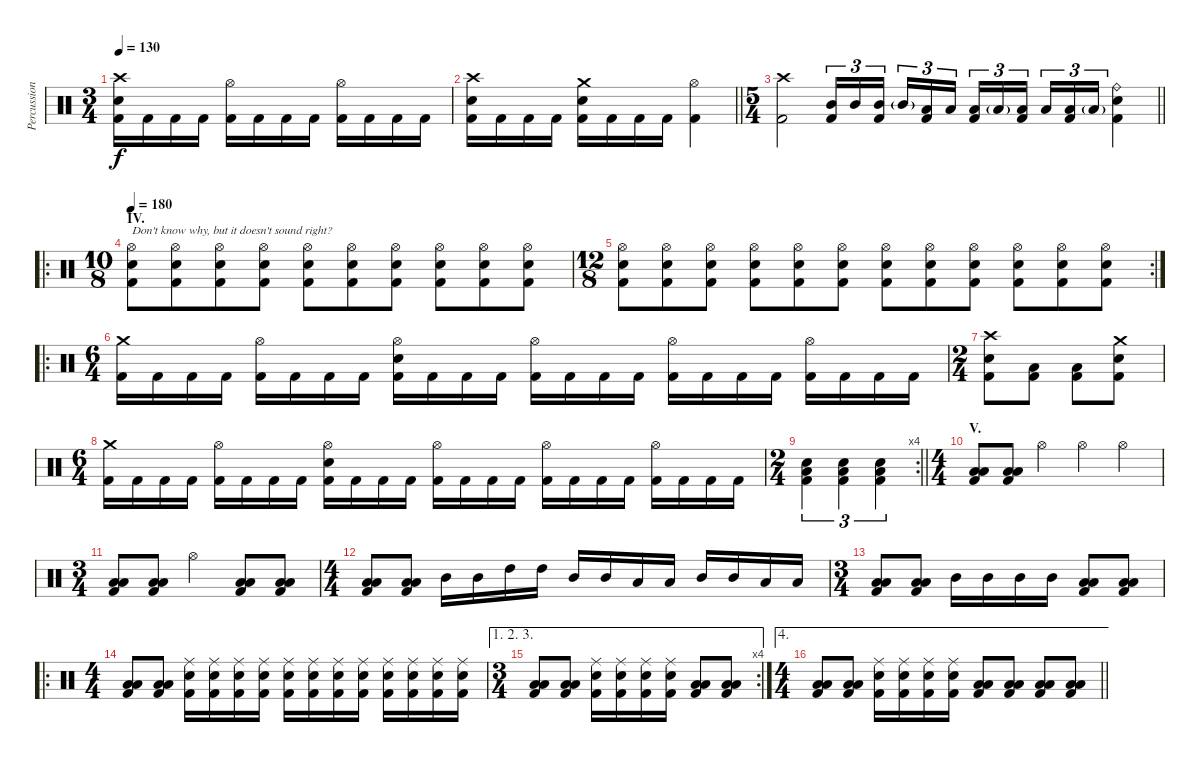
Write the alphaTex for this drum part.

\track ("Percussion" "Percussion") {instrument percussion}
\staff {score}
\articulation defaults
\ts (3 4)
\tempo 130
\clef neutral
\ks c
("Crash high (hit)" "Electric Snare (hit)" "Kick (hit) 2").16{dy f} "Kick (hit) 2".16 "Kick (hit) 2".16 "Kick (hit) 2".16 ("Hi-Hat (open)" "Kick (hit) 2").16 "Kick (hit) 2".16 "Kick (hit) 2".16 "Kick (hit) 2".16 ("Hi-Hat (open)" "Kick (hit) 2").16 "Kick (hit) 2".16 "Kick (hit) 2".16 "Kick (hit) 2".16 |
\barLineRight lightlight
("Crash high (hit)" "Electric Snare (hit)" "Kick (hit) 2").16 "Kick (hit) 2".16 "Kick (hit) 2".16 "Kick (hit) 2".16 ("Crash medium (hit)" "Electric Snare (hit)" "Kick (hit) 2").16 "Kick (hit) 2".16 "Kick (hit) 2".16 "Kick (hit) 2".16 ("Hi-Hat (open)" "Kick (hit) 2").4 |
\ts (5 4)
\barLineRight lightlight
("Crash high (hit)" "Kick (hit) 2").2 ("Mid Tom (hit)" "Kick (hit) 2").16{tu (3 2)} "Mid Tom (hit)".16{tu (3 2)} ("Mid Tom (hit)" "Kick (hit) 2").16{tu (3 2) beam splitsecondary} "Mid Tom (hit)"{g}.16{tu (3 2)} ("Low Tom (hit)" "Kick (hit) 2").16{tu (3 2)} "Low Tom (hit)".16{tu (3 2)} ("Low Tom (hit)" "Kick (hit) 2").16{tu (3 2)} "Low Tom (hit)"{g}.16{tu (3 2)} ("Low Floor Tom (hit)" "Kick (hit) 2").16{tu (3 2) beam splitsecondary} "Low Floor Tom (hit)".16{tu (3 2)} ("Low Floor Tom (hit)" "Kick (hit) 2").16{tu (3 2)} "Low Floor Tom (hit)"{g}.16{tu (3 2)} ("Ride (bell)" "Electric Snare (hit)" "Kick (hit) 2").4 |
\ro
\ts (10 8)
\section ("" "IV.")
\tempo 180
("Hi-Hat (open)" "Electric Snare (hit)" "Kick (hit) 2").8{txt "Don't know why, but it doesn't sound right?"} ("Hi-Hat (open)" "Electric Snare (hit)" "Kick (hit) 2").8 ("Hi-Hat (open)" "Electric Snare (hit)" "Kick (hit) 2").8 ("Hi-Hat (open)" "Electric Snare (hit)" "Kick (hit) 2").8 ("Hi-Hat (open)" "Electric Snare (hit)" "Kick (hit) 2").8 ("Hi-Hat (open)" "Electric Snare (hit)" "Kick (hit) 2").8 ("Hi-Hat (open)" "Electric Snare (hit)" "Kick (hit) 2").8 ("Hi-Hat (open)" "Electric Snare (hit)" "Kick (hit) 2").8 ("Hi-Hat (open)" "Electric Snare (hit)" "Kick (hit) 2").8 ("Hi-Hat (open)" "Electric Snare (hit)" "Kick (hit) 2").8 |
\rc 2
\ts (12 8)
("Hi-Hat (open)" "Electric Snare (hit)" "Kick (hit) 2").8 ("Hi-Hat (open)" "Electric Snare (hit)" "Kick (hit) 2").8 ("Hi-Hat (open)" "Electric Snare (hit)" "Kick (hit) 2").8 ("Hi-Hat (open)" "Electric Snare (hit)" "Kick (hit) 2").8 ("Hi-Hat (open)" "Electric Snare (hit)" "Kick (hit) 2").8 ("Hi-Hat (open)" "Electric Snare (hit)" "Kick (hit) 2").8 ("Hi-Hat (open)" "Electric Snare (hit)" "Kick (hit) 2").8 ("Hi-Hat (open)" "Electric Snare (hit)" "Kick (hit) 2").8 ("Hi-Hat (open)" "Electric Snare (hit)" "Kick (hit) 2").8 ("Hi-Hat (open)" "Electric Snare (hit)" "Kick (hit) 2").8 ("Hi-Hat (open)" "Electric Snare (hit)" "Kick (hit) 2").8 ("Hi-Hat (open)" "Electric Snare (hit)" "Kick (hit) 2").8 |
\ro
\ts (6 4)
("Crash medium (hit)" "Kick (hit) 2").16 "Kick (hit) 2".16 "Kick (hit) 2".16 "Kick (hit) 2".16 ("Hi-Hat (open)" "Kick (hit) 2").16 "Kick (hit) 2".16 "Kick (hit) 2".16 "Kick (hit) 2".16 ("Hi-Hat (open)" "Electric Snare (hit)" "Kick (hit) 2").16 "Kick (hit) 2".16 "Kick (hit) 2".16 "Kick (hit) 2".16 ("Hi-Hat (open)" "Kick (hit) 2").16 "Kick (hit) 2".16 "Kick (hit) 2".16 "Kick (hit) 2".16 ("Hi-Hat (open)" "Kick (hit) 2").16 "Kick (hit) 2".16 "Kick (hit) 2".16 "Kick (hit) 2".16 ("Hi-Hat (open)" "Kick (hit) 2").16 "Kick (hit) 2".16 "Kick (hit) 2".16 "Kick (hit) 2".16 |
\ts (2 4)
("Crash high (hit)" "Electric Snare (hit)" "Kick (hit) 2").8 ("Low Tom (hit)" "Kick (hit) 2").8 ("Low Floor Tom (hit)" "Kick (hit) 2").8 ("Crash medium (hit)" "Electric Snare (hit)" "Kick (hit) 2").8 |
\ts (6 4)
("Crash medium (hit)" "Kick (hit) 2").16 "Kick (hit) 2".16 "Kick (hit) 2".16 "Kick (hit) 2".16 ("Hi-Hat (open)" "Kick (hit) 2").16 "Kick (hit) 2".16 "Kick (hit) 2".16 "Kick (hit) 2".16 ("Hi-Hat (open)" "Electric Snare (hit)" "Kick (hit) 2").16 "Kick (hit) 2".16 "Kick (hit) 2".16 "Kick (hit) 2".16 ("Hi-Hat (open)" "Kick (hit) 2").16 "Kick (hit) 2".16 "Kick (hit) 2".16 "Kick (hit) 2".16 ("Hi-Hat (open)" "Kick (hit) 2").16 "Kick (hit) 2".16 "Kick (hit) 2".16 "Kick (hit) 2".16 ("Hi-Hat (open)" "Kick (hit) 2").16 "Kick (hit) 2".16 "Kick (hit) 2".16 "Kick (hit) 2".16 |
\rc 4
\ts (2 4)
\barLineRight lightlight
("Electric Snare (hit)" "Low Floor Tom (hit)" "Kick (hit) 2").4{tu (3 2)} ("Electric Snare (hit)" "Low Floor Tom (hit)" "Kick (hit) 2").4{tu (3 2)} ("Electric Snare (hit)" "Low Floor Tom (hit)" "Kick (hit) 2").4{tu (3 2)} |
\ts (4 4)
\section ("" "V.")
("Low Tom (hit)" "Low Floor Tom (hit)" "Kick (hit) 2").8 ("Low Tom (hit)" "Low Floor Tom (hit)" "Kick (hit) 2").8 "Hi-Hat (open)".4 "Hi-Hat (open)".4 "Hi-Hat (open)".4 |
\ts (3 4)
("Low Tom (hit)" "Low Floor Tom (hit)" "Kick (hit) 2").8 ("Low Tom (hit)" "Low Floor Tom (hit)" "Kick (hit) 2").8 "Hi-Hat (open)".4 ("Low Tom (hit)" "Low Floor Tom (hit)" "Kick (hit) 2").8 ("Low Tom (hit)" "Low Floor Tom (hit)" "Kick (hit) 2").8 |
\ts (4 4)
("Low Tom (hit)" "Low Floor Tom (hit)" "Kick (hit) 2").8 ("Low Tom (hit)" "Low Floor Tom (hit)" "Kick (hit) 2").8 "Mid Tom (hit)".16 "Mid Tom (hit)".16 "High Tom (hit)".16 "High Tom (hit)".16 "Mid Tom (hit)".16 "Mid Tom (hit)".16 "Low Tom (hit)".16 "Low Tom (hit)".16 "Mid Tom (hit)".16 "Mid Tom (hit)".16 "Low Tom (hit)".16 "Low Tom (hit)".16 |
\ts (3 4)
("Low Tom (hit)" "Low Floor Tom (hit)" "Kick (hit) 2").8 ("Low Tom (hit)" "Low Floor Tom (hit)" "Kick (hit) 2").8 "Mid Tom (hit)".16 "Mid Tom (hit)".16 "Mid Tom (hit)".16 "Mid Tom (hit)".16 ("Low Tom (hit)" "Low Floor Tom (hit)" "Kick (hit) 2").8 ("Low Tom (hit)" "Low Floor Tom (hit)" "Kick (hit) 2").8 |
\ro
\ts (4 4)
("Low Tom (hit)" "Low Floor Tom (hit)" "Kick (hit) 2").8 ("Low Tom (hit)" "Low Floor Tom (hit)" "Kick (hit) 2").8 ("Ride (middle)" "Electric Snare (hit)" "Kick (hit) 2").16 ("Ride (middle)" "Electric Snare (hit)" "Kick (hit) 2").16 ("Ride (middle)" "Electric Snare (hit)" "Kick (hit) 2").16 ("Ride (middle)" "Electric Snare (hit)" "Kick (hit) 2").16 ("Ride (middle)" "Electric Snare (hit)" "Kick (hit) 2").16 ("Ride (middle)" "Electric Snare (hit)" "Kick (hit) 2").16 ("Ride (middle)" "Electric Snare (hit)" "Kick (hit) 2").16 ("Ride (middle)" "Electric Snare (hit)" "Kick (hit) 2").16 ("Ride (middle)" "Electric Snare (hit)" "Kick (hit) 2").16 ("Ride (middle)" "Electric Snare (hit)" "Kick (hit) 2").16 ("Ride (middle)" "Electric Snare (hit)" "Kick (hit) 2").16 ("Ride (middle)" "Electric Snare (hit)" "Kick (hit) 2").16 |
\ae (1 2 3)
\rc 4
\ts (3 4)
("Low Tom (hit)" "Low Floor Tom (hit)" "Kick (hit) 2").8 ("Low Tom (hit)" "Low Floor Tom (hit)" "Kick (hit) 2").8 ("Ride (middle)" "Electric Snare (hit)" "Kick (hit) 2").16 ("Ride (middle)" "Electric Snare (hit)" "Kick (hit) 2").16 ("Ride (middle)" "Electric Snare (hit)" "Kick (hit) 2").16 ("Ride (middle)" "Electric Snare (hit)" "Kick (hit) 2").16 ("Low Tom (hit)" "Low Floor Tom (hit)" "Kick (hit) 2").8 ("Low Tom (hit)" "Low Floor Tom (hit)" "Kick (hit) 2").8 |
\ae 4
\ts (4 4)
\barLineRight lightlight
("Low Tom (hit)" "Low Floor Tom (hit)" "Kick (hit) 2").8 ("Low Tom (hit)" "Low Floor Tom (hit)" "Kick (hit) 2").8 ("Ride (middle)" "Electric Snare (hit)" "Kick (hit) 2").16 ("Ride (middle)" "Electric Snare (hit)" "Kick (hit) 2").16 ("Ride (middle)" "Electric Snare (hit)" "Kick (hit) 2").16 ("Ride (middle)" "Electric Snare (hit)" "Kick (hit) 2").16 ("Low Tom (hit)" "Low Floor Tom (hit)" "Kick (hit) 2").8 ("Low Tom (hit)" "Low Floor Tom (hit)" "Kick (hit) 2").8 ("Low Tom (hit)" "Low Floor Tom (hit)" "Kick (hit) 2").8 ("Low Tom (hit)" "Low Floor Tom (hit)" "Kick (hit) 2").8
